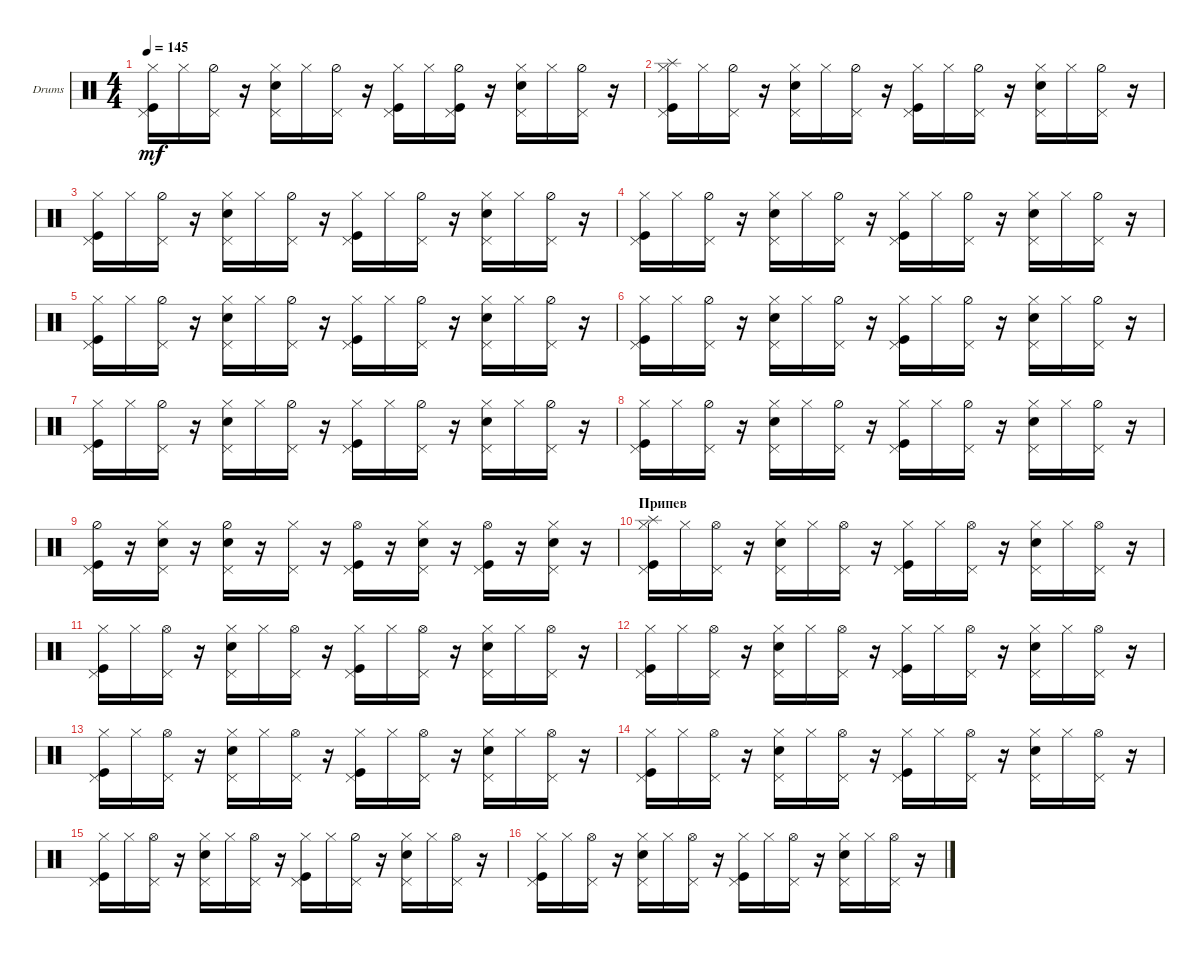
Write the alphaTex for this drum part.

\bracketExtendMode groupsimilarinstruments
\firstSystemTrackNameOrientation horizontal
\otherSystemsTrackNameOrientation horizontal
\track ("Drumkit" "Drums") {solo instrument percussion}
\staff {score}
\articulation defaults
\ts (4 4)
\tempo 145
\clef neutral
\ks c
("Kick (hit)" "Hi-Hat (closed)" "Pedal Hi-Hat (hit)").16{dy mf} "Hi-Hat (closed)".16 ("Hi-Hat (half)" "Pedal Hi-Hat (hit)").16 r.16 ("Snare (hit) 2" "Pedal Hi-Hat (hit)" "Hi-Hat (closed)").16 "Hi-Hat (closed)".16 ("Hi-Hat (half)" "Pedal Hi-Hat (hit)").16 r.16 ("Kick (hit)" "Hi-Hat (closed)" "Pedal Hi-Hat (hit)").16 "Hi-Hat (closed)".16 ("Hi-Hat (half)" "Pedal Hi-Hat (hit)" "Kick (hit)").16 r.16 ("Snare (hit) 2" "Pedal Hi-Hat (hit)" "Hi-Hat (closed)").16 "Hi-Hat (closed)".16 ("Hi-Hat (half)" "Pedal Hi-Hat (hit)").16 r.16 |
("Kick (hit)" "Hi-Hat (closed)" "Pedal Hi-Hat (hit)" "Splash (hit)").16 "Hi-Hat (closed)".16 ("Hi-Hat (half)" "Pedal Hi-Hat (hit)").16 r.16 ("Snare (hit) 2" "Pedal Hi-Hat (hit)" "Hi-Hat (closed)").16 "Hi-Hat (closed)".16 ("Hi-Hat (half)" "Pedal Hi-Hat (hit)").16 r.16 ("Kick (hit)" "Hi-Hat (closed)" "Pedal Hi-Hat (hit)").16 "Hi-Hat (closed)".16 ("Hi-Hat (half)" "Pedal Hi-Hat (hit)").16 r.16 ("Snare (hit) 2" "Pedal Hi-Hat (hit)" "Hi-Hat (closed)").16 "Hi-Hat (closed)".16 ("Hi-Hat (half)" "Pedal Hi-Hat (hit)").16 r.16 |
("Kick (hit)" "Hi-Hat (closed)" "Pedal Hi-Hat (hit)").16 "Hi-Hat (closed)".16 ("Hi-Hat (half)" "Pedal Hi-Hat (hit)").16 r.16 ("Snare (hit) 2" "Pedal Hi-Hat (hit)" "Hi-Hat (closed)").16 "Hi-Hat (closed)".16 ("Hi-Hat (half)" "Pedal Hi-Hat (hit)").16 r.16 ("Kick (hit)" "Hi-Hat (closed)" "Pedal Hi-Hat (hit)").16 "Hi-Hat (closed)".16 ("Hi-Hat (half)" "Pedal Hi-Hat (hit)").16 r.16 ("Snare (hit) 2" "Pedal Hi-Hat (hit)" "Hi-Hat (closed)").16 "Hi-Hat (closed)".16 ("Hi-Hat (half)" "Pedal Hi-Hat (hit)").16 r.16 |
("Kick (hit)" "Hi-Hat (closed)" "Pedal Hi-Hat (hit)").16 "Hi-Hat (closed)".16 ("Hi-Hat (half)" "Pedal Hi-Hat (hit)").16 r.16 ("Snare (hit) 2" "Pedal Hi-Hat (hit)" "Hi-Hat (closed)").16 "Hi-Hat (closed)".16 ("Hi-Hat (half)" "Pedal Hi-Hat (hit)").16 r.16 ("Kick (hit)" "Hi-Hat (closed)" "Pedal Hi-Hat (hit)").16 "Hi-Hat (closed)".16 ("Hi-Hat (half)" "Pedal Hi-Hat (hit)").16 r.16 ("Snare (hit) 2" "Pedal Hi-Hat (hit)" "Hi-Hat (closed)").16 "Hi-Hat (closed)".16 ("Hi-Hat (half)" "Pedal Hi-Hat (hit)").16 r.16 |
("Kick (hit)" "Hi-Hat (closed)" "Pedal Hi-Hat (hit)").16 "Hi-Hat (closed)".16 ("Hi-Hat (half)" "Pedal Hi-Hat (hit)").16 r.16 ("Snare (hit) 2" "Pedal Hi-Hat (hit)" "Hi-Hat (closed)").16 "Hi-Hat (closed)".16 ("Hi-Hat (half)" "Pedal Hi-Hat (hit)").16 r.16 ("Kick (hit)" "Hi-Hat (closed)" "Pedal Hi-Hat (hit)").16 "Hi-Hat (closed)".16 ("Hi-Hat (half)" "Pedal Hi-Hat (hit)").16 r.16 ("Snare (hit) 2" "Pedal Hi-Hat (hit)" "Hi-Hat (closed)").16 "Hi-Hat (closed)".16 ("Hi-Hat (half)" "Pedal Hi-Hat (hit)").16 r.16 |
("Kick (hit)" "Hi-Hat (closed)" "Pedal Hi-Hat (hit)").16 "Hi-Hat (closed)".16 ("Hi-Hat (half)" "Pedal Hi-Hat (hit)").16 r.16 ("Snare (hit) 2" "Pedal Hi-Hat (hit)" "Hi-Hat (closed)").16 "Hi-Hat (closed)".16 ("Hi-Hat (half)" "Pedal Hi-Hat (hit)").16 r.16 ("Kick (hit)" "Hi-Hat (closed)" "Pedal Hi-Hat (hit)").16 "Hi-Hat (closed)".16 ("Hi-Hat (half)" "Pedal Hi-Hat (hit)").16 r.16 ("Snare (hit) 2" "Pedal Hi-Hat (hit)" "Hi-Hat (closed)").16 "Hi-Hat (closed)".16 ("Hi-Hat (half)" "Pedal Hi-Hat (hit)").16 r.16 |
("Kick (hit)" "Hi-Hat (closed)" "Pedal Hi-Hat (hit)").16 "Hi-Hat (closed)".16 ("Hi-Hat (half)" "Pedal Hi-Hat (hit)").16 r.16 ("Snare (hit) 2" "Pedal Hi-Hat (hit)" "Hi-Hat (closed)").16 "Hi-Hat (closed)".16 ("Hi-Hat (half)" "Pedal Hi-Hat (hit)").16 r.16 ("Kick (hit)" "Hi-Hat (closed)" "Pedal Hi-Hat (hit)").16 "Hi-Hat (closed)".16 ("Hi-Hat (half)" "Pedal Hi-Hat (hit)").16 r.16 ("Snare (hit) 2" "Pedal Hi-Hat (hit)" "Hi-Hat (closed)").16 "Hi-Hat (closed)".16 ("Hi-Hat (half)" "Pedal Hi-Hat (hit)").16 r.16 |
("Kick (hit)" "Hi-Hat (closed)" "Pedal Hi-Hat (hit)").16 "Hi-Hat (closed)".16 ("Hi-Hat (half)" "Pedal Hi-Hat (hit)").16 r.16 ("Snare (hit) 2" "Pedal Hi-Hat (hit)" "Hi-Hat (closed)").16 "Hi-Hat (closed)".16 ("Hi-Hat (half)" "Pedal Hi-Hat (hit)").16 r.16 ("Kick (hit)" "Hi-Hat (closed)" "Pedal Hi-Hat (hit)").16 "Hi-Hat (closed)".16 ("Hi-Hat (half)" "Pedal Hi-Hat (hit)").16 r.16 ("Snare (hit) 2" "Pedal Hi-Hat (hit)" "Hi-Hat (closed)").16 "Hi-Hat (closed)".16 ("Hi-Hat (half)" "Pedal Hi-Hat (hit)").16 r.16 |
("Kick (hit)" "Hi-Hat (half)" "Pedal Hi-Hat (hit)").16 r.16 ("Hi-Hat (closed)" "Snare (hit) 2" "Pedal Hi-Hat (hit)").16 r.16 ("Snare (hit) 2" "Hi-Hat (half)" "Pedal Hi-Hat (hit)").16 r.16 ("Hi-Hat (closed)" "Pedal Hi-Hat (hit)").16 r.16 ("Kick (hit)" "Hi-Hat (open)" "Pedal Hi-Hat (hit)").16 r.16 ("Hi-Hat (closed)" "Snare (hit) 2" "Pedal Hi-Hat (hit)").16 r.16 ("Hi-Hat (open)" "Kick (hit)" "Pedal Hi-Hat (hit)").16 r.16 ("Hi-Hat (closed)" "Snare (hit) 2" "Pedal Hi-Hat (hit)").16 r.16 |
\section ("" "Припев")
("Kick (hit)" "Hi-Hat (closed)" "Pedal Hi-Hat (hit)" "Splash (hit)").16 "Hi-Hat (closed)".16 ("Hi-Hat (open)" "Pedal Hi-Hat (hit)").16 r.16 ("Snare (hit) 2" "Pedal Hi-Hat (hit)" "Hi-Hat (closed)").16 "Hi-Hat (closed)".16 ("Hi-Hat (open)" "Pedal Hi-Hat (hit)").16 r.16 ("Kick (hit)" "Hi-Hat (closed)" "Pedal Hi-Hat (hit)").16 "Hi-Hat (closed)".16 ("Hi-Hat (open)" "Pedal Hi-Hat (hit)").16 r.16 ("Snare (hit) 2" "Pedal Hi-Hat (hit)" "Hi-Hat (closed)").16 "Hi-Hat (closed)".16 ("Hi-Hat (open)" "Pedal Hi-Hat (hit)").16 r.16 |
("Kick (hit)" "Hi-Hat (closed)" "Pedal Hi-Hat (hit)").16 "Hi-Hat (closed)".16 ("Hi-Hat (open)" "Pedal Hi-Hat (hit)").16 r.16 ("Snare (hit) 2" "Pedal Hi-Hat (hit)" "Hi-Hat (closed)").16 "Hi-Hat (closed)".16 ("Hi-Hat (open)" "Pedal Hi-Hat (hit)").16 r.16 ("Kick (hit)" "Hi-Hat (closed)" "Pedal Hi-Hat (hit)").16 "Hi-Hat (closed)".16 ("Hi-Hat (open)" "Pedal Hi-Hat (hit)").16 r.16 ("Snare (hit) 2" "Pedal Hi-Hat (hit)" "Hi-Hat (closed)").16 "Hi-Hat (closed)".16 ("Hi-Hat (open)" "Pedal Hi-Hat (hit)").16 r.16 |
("Kick (hit)" "Hi-Hat (closed)" "Pedal Hi-Hat (hit)").16 "Hi-Hat (closed)".16 ("Hi-Hat (open)" "Pedal Hi-Hat (hit)").16 r.16 ("Snare (hit) 2" "Pedal Hi-Hat (hit)" "Hi-Hat (closed)").16 "Hi-Hat (closed)".16 ("Hi-Hat (open)" "Pedal Hi-Hat (hit)").16 r.16 ("Kick (hit)" "Hi-Hat (closed)" "Pedal Hi-Hat (hit)").16 "Hi-Hat (closed)".16 ("Hi-Hat (open)" "Pedal Hi-Hat (hit)").16 r.16 ("Snare (hit) 2" "Pedal Hi-Hat (hit)" "Hi-Hat (closed)").16 "Hi-Hat (closed)".16 ("Hi-Hat (open)" "Pedal Hi-Hat (hit)").16 r.16 |
("Kick (hit)" "Hi-Hat (closed)" "Pedal Hi-Hat (hit)").16 "Hi-Hat (closed)".16 ("Hi-Hat (open)" "Pedal Hi-Hat (hit)").16 r.16 ("Snare (hit) 2" "Pedal Hi-Hat (hit)" "Hi-Hat (closed)").16 "Hi-Hat (closed)".16 ("Hi-Hat (open)" "Pedal Hi-Hat (hit)").16 r.16 ("Kick (hit)" "Hi-Hat (closed)" "Pedal Hi-Hat (hit)").16 "Hi-Hat (closed)".16 ("Hi-Hat (open)" "Pedal Hi-Hat (hit)").16 r.16 ("Snare (hit) 2" "Pedal Hi-Hat (hit)" "Hi-Hat (closed)").16 "Hi-Hat (closed)".16 ("Hi-Hat (open)" "Pedal Hi-Hat (hit)").16 r.16 |
("Kick (hit)" "Hi-Hat (closed)" "Pedal Hi-Hat (hit)").16 "Hi-Hat (closed)".16 ("Hi-Hat (open)" "Pedal Hi-Hat (hit)").16 r.16 ("Snare (hit) 2" "Pedal Hi-Hat (hit)" "Hi-Hat (closed)").16 "Hi-Hat (closed)".16 ("Hi-Hat (open)" "Pedal Hi-Hat (hit)").16 r.16 ("Kick (hit)" "Hi-Hat (closed)" "Pedal Hi-Hat (hit)").16 "Hi-Hat (closed)".16 ("Hi-Hat (open)" "Pedal Hi-Hat (hit)").16 r.16 ("Snare (hit) 2" "Pedal Hi-Hat (hit)" "Hi-Hat (closed)").16 "Hi-Hat (closed)".16 ("Hi-Hat (open)" "Pedal Hi-Hat (hit)").16 r.16 |
("Kick (hit)" "Hi-Hat (closed)" "Pedal Hi-Hat (hit)").16 "Hi-Hat (closed)".16 ("Hi-Hat (open)" "Pedal Hi-Hat (hit)").16 r.16 ("Snare (hit) 2" "Pedal Hi-Hat (hit)" "Hi-Hat (closed)").16 "Hi-Hat (closed)".16 ("Hi-Hat (open)" "Pedal Hi-Hat (hit)").16 r.16 ("Kick (hit)" "Hi-Hat (closed)" "Pedal Hi-Hat (hit)").16 "Hi-Hat (closed)".16 ("Hi-Hat (half)" "Pedal Hi-Hat (hit)").16 r.16 ("Snare (hit) 2" "Pedal Hi-Hat (hit)" "Hi-Hat (closed)").16 "Hi-Hat (closed)".16 ("Hi-Hat (open)" "Pedal Hi-Hat (hit)").16 r.16 |
("Kick (hit)" "Hi-Hat (closed)" "Pedal Hi-Hat (hit)").16 "Hi-Hat (closed)".16 ("Hi-Hat (open)" "Pedal Hi-Hat (hit)").16 r.16 ("Snare (hit) 2" "Pedal Hi-Hat (hit)" "Hi-Hat (closed)").16 "Hi-Hat (closed)".16 ("Hi-Hat (open)" "Pedal Hi-Hat (hit)").16 r.16 ("Kick (hit)" "Hi-Hat (closed)" "Pedal Hi-Hat (hit)").16 "Hi-Hat (closed)".16 ("Hi-Hat (open)" "Pedal Hi-Hat (hit)").16 r.16 ("Snare (hit) 2" "Pedal Hi-Hat (hit)" "Hi-Hat (closed)").16 "Hi-Hat (closed)".16 ("Hi-Hat (open)" "Pedal Hi-Hat (hit)").16 r.16
